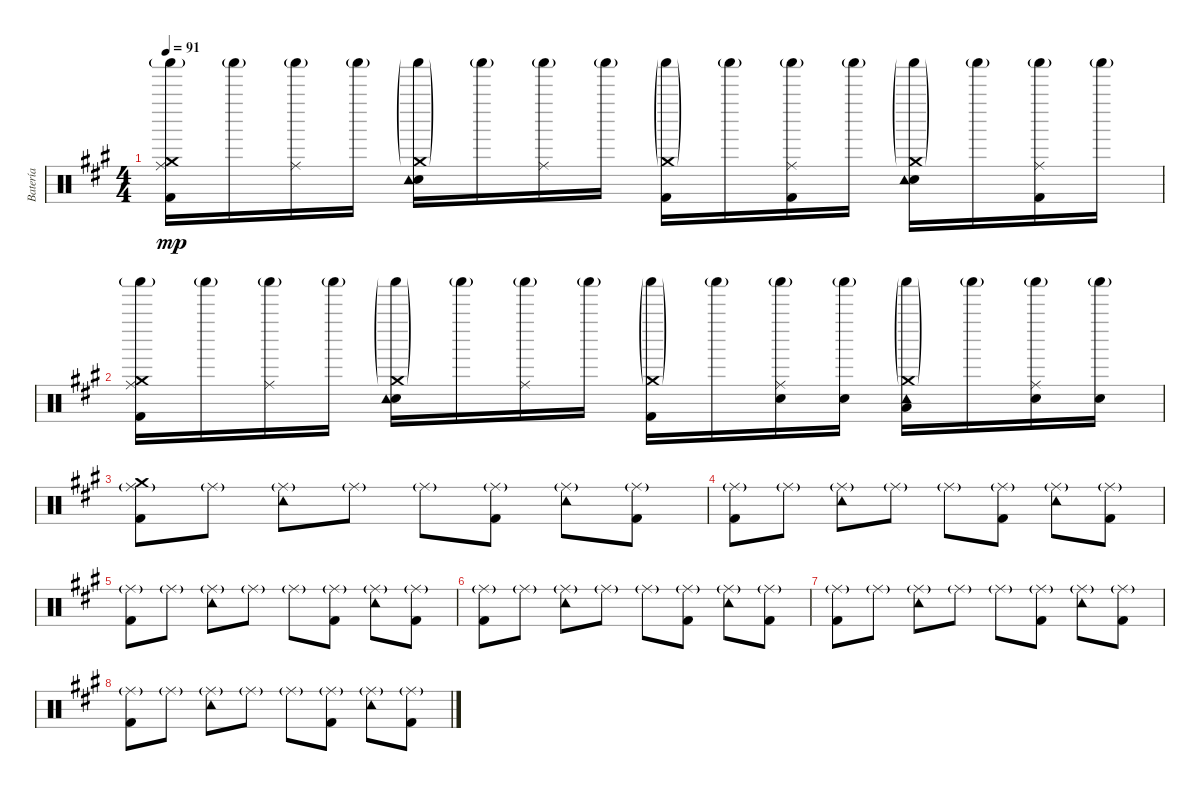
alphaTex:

\track ("Batería" "Batería") {instrument percussion}
\staff {score}
\articulation defaults
\ts (4 4)
\tempo 91
\clef neutral
\ks a
("Kick (hit) 2" "Ride (middle)" "Crash medium (hit)" "Shaker (hit)"{g}).16{dy mp} "Shaker (hit)"{g}.16 ("Ride (middle)" "Shaker (hit)"{g}).16 "Shaker (hit)"{g}.16 ("Electric Snare (hit)" "Crash medium (hit)"{g} "Tambourine (hit)" "Shaker (hit)"{g}).16 "Shaker (hit)"{g}.16 ("Ride (middle)" "Shaker (hit)"{g}).16 "Shaker (hit)"{g}.16 ("Kick (hit) 2" "Crash medium (hit)"{g} "Shaker (hit)"{g}).16 "Shaker (hit)"{g}.16 ("Kick (hit) 2" "Ride (middle)" "Shaker (hit)"{g}).16 "Shaker (hit)"{g}.16 ("Electric Snare (hit)" "Crash medium (hit)"{g} "Tambourine (hit)" "Shaker (hit)"{g}).16 "Shaker (hit)"{g}.16 ("Kick (hit) 2" "Ride (middle)" "Shaker (hit)"{g}).16 "Shaker (hit)"{g}.16 |
("Kick (hit) 2" "Ride (middle)" "Crash medium (hit)" "Shaker (hit)"{g}).16 "Shaker (hit)"{g}.16 ("Ride (middle)" "Shaker (hit)"{g}).16 "Shaker (hit)"{g}.16 ("Electric Snare (hit)" "Crash medium (hit)"{g} "Tambourine (hit)" "Shaker (hit)"{g}).16 "Shaker (hit)"{g}.16 ("Ride (middle)" "Shaker (hit)"{g}).16 "Shaker (hit)"{g}.16 ("Kick (hit) 2" "Crash medium (hit)"{g} "Shaker (hit)"{g}).16 "Shaker (hit)"{g}.16 ("Electric Snare (hit)" "Ride (middle)" "Shaker (hit)"{g}).16 ("Electric Snare (hit)" "Shaker (hit)"{g}).16 ("Crash medium (hit)"{g} "Low Tom (hit)" "Tambourine (hit)" "Shaker (hit)"{g}).16 "Shaker (hit)"{g}.16 ("Electric Snare (hit)" "Ride (middle)" "Shaker (hit)"{g}).16 ("Electric Snare (hit)" "Shaker (hit)"{g}).16 |
("Kick (hit) 2" "Ride (middle)"{g} "Crash medium (hit)").8 "Ride (middle)"{g}.8 ("Ride (middle)"{g} "Tambourine (hit)").8 "Ride (middle)"{g}.8 "Ride (middle)"{g}.8 ("Kick (hit) 2" "Ride (middle)"{g}).8 ("Ride (middle)"{g} "Tambourine (hit)").8 ("Kick (hit) 2" "Ride (middle)"{g}).8 |
("Kick (hit) 2" "Ride (middle)"{g}).8 "Ride (middle)"{g}.8 ("Ride (middle)"{g} "Tambourine (hit)").8 "Ride (middle)"{g}.8 "Ride (middle)"{g}.8 ("Kick (hit) 2" "Ride (middle)"{g}).8 ("Ride (middle)"{g} "Tambourine (hit)").8 ("Kick (hit) 2" "Ride (middle)"{g}).8 |
("Kick (hit) 2" "Ride (middle)"{g}).8 "Ride (middle)"{g}.8 ("Ride (middle)"{g} "Tambourine (hit)").8 "Ride (middle)"{g}.8 "Ride (middle)"{g}.8 ("Kick (hit) 2" "Ride (middle)"{g}).8 ("Ride (middle)"{g} "Tambourine (hit)").8 ("Kick (hit) 2" "Ride (middle)"{g}).8 |
("Kick (hit) 2" "Ride (middle)"{g}).8 "Ride (middle)"{g}.8 ("Ride (middle)"{g} "Tambourine (hit)").8 "Ride (middle)"{g}.8 "Ride (middle)"{g}.8 ("Kick (hit) 2" "Ride (middle)"{g}).8 ("Ride (middle)"{g} "Tambourine (hit)").8 ("Kick (hit) 2" "Ride (middle)"{g}).8 |
("Kick (hit) 2" "Ride (middle)"{g}).8 "Ride (middle)"{g}.8 ("Ride (middle)"{g} "Tambourine (hit)").8 "Ride (middle)"{g}.8 "Ride (middle)"{g}.8 ("Kick (hit) 2" "Ride (middle)"{g}).8 ("Ride (middle)"{g} "Tambourine (hit)").8 ("Kick (hit) 2" "Ride (middle)"{g}).8 |
("Kick (hit) 2" "Ride (middle)"{g}).8 "Ride (middle)"{g}.8 ("Ride (middle)"{g} "Tambourine (hit)").8 "Ride (middle)"{g}.8 "Ride (middle)"{g}.8 ("Kick (hit) 2" "Ride (middle)"{g}).8 ("Ride (middle)"{g} "Tambourine (hit)").8 ("Kick (hit) 2" "Ride (middle)"{g}).8
